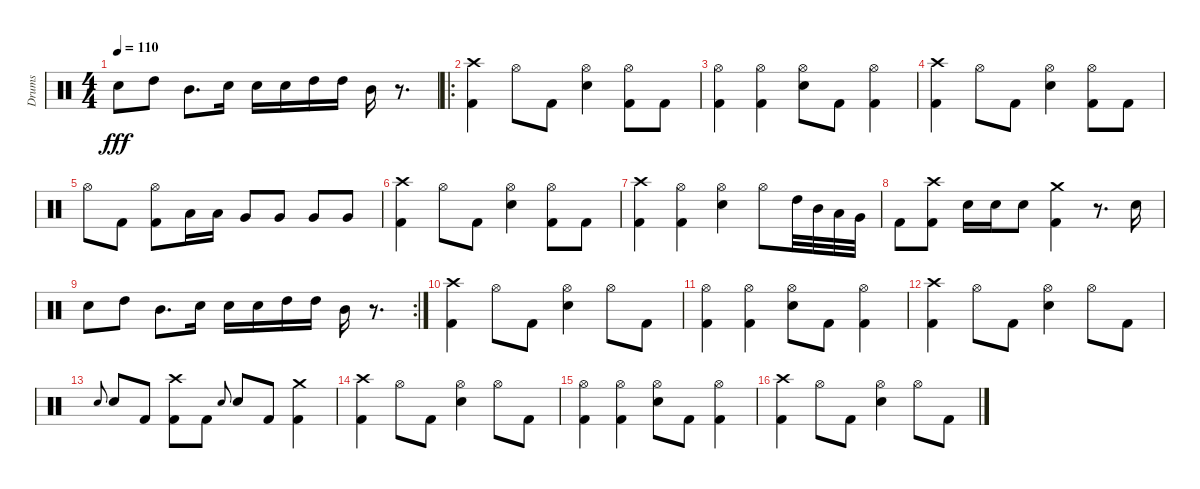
\track ("Drums" "Drums") {instrument percussion}
\staff {score}
\articulation defaults
\ts (4 4)
\tempo 110
\clef neutral
\ks c "Snare (hit) 2".8{dy fff} "High Tom (hit)".8 "Mid Tom (hit)".8{d} "Snare (hit) 2".16 "Snare (hit) 2".16 "Snare (hit) 2".16 "High Tom (hit)".16 "High Tom (hit)".16 "Mid Tom (hit)".16
r.8{d} |
\ro
("Crash high (hit)" "Kick (hit) 2").4 "Hi-Hat (open)".8 "Kick (hit) 2".8 ("Hi-Hat (open)" "Snare (hit) 2").4 ("Hi-Hat (open)" "Kick (hit) 2").8 "Kick (hit) 2".8 |
("Kick (hit) 2" "Hi-Hat (open)").4 ("Hi-Hat (open)" "Kick (hit) 2").4 ("Hi-Hat (open)" "Snare (hit) 2").8 "Kick (hit) 2".8 ("Kick (hit) 2" "Hi-Hat (open)").4 |
("Crash high (hit)" "Kick (hit) 2").4 "Hi-Hat (open)".8 "Kick (hit) 2".8 ("Hi-Hat (open)" "Snare (hit) 2").4 ("Hi-Hat (open)" "Kick (hit) 2").8 "Kick (hit) 2".8 |
"Hi-Hat (open)".8 "Kick (hit) 2".8 ("Kick (hit) 2" "Hi-Hat (open)").8 "Low Tom (hit)".16 "Low Tom (hit)".16 "Very Low Tom (hit)".8 "Very Low Tom (hit)".8 "Very Low Tom (hit)".8 "Very Low Tom (hit)".8 |
("Crash high (hit)" "Kick (hit) 2").4 "Hi-Hat (open)".8 "Kick (hit) 2".8 ("Hi-Hat (open)" "Snare (hit) 2").4 ("Hi-Hat (open)" "Kick (hit) 2").8 "Kick (hit) 2".8 |
("Kick (hit) 2" "Crash high (hit)").4 ("Hi-Hat (open)" "Kick (hit) 2").4 ("Hi-Hat (open)" "Snare (hit) 2").4 "Hi-Hat (open)".8 "High Tom (hit)".32 "Mid Tom (hit)".32 "Low Tom (hit)".32 "Very Low Tom (hit)".32 |
"Kick (hit) 2".8 ("Kick (hit) 2" "Crash high (hit)").8 "Snare (hit) 2".16 "Snare (hit) 2".16 "Snare (hit) 2".8 ("Kick (hit) 2" "Crash medium (hit)").4 r.8{d} "Snare (hit) 2".16 |
\rc 2 "Snare (hit) 2".8 "High Tom (hit)".8 "Mid Tom (hit)".8{d} "Snare (hit) 2".16 "Snare (hit) 2".16 "Snare (hit) 2".16 "High Tom (hit)".16 "High Tom (hit)".16 "Mid Tom (hit)".16
r.8{d} |
("Kick (hit) 2" "Crash high (hit)").4 "Hi-Hat (open)".8 "Kick (hit) 2".8 ("Hi-Hat (open)" "Snare (hit) 2").4 "Hi-Hat (open)".8 "Kick (hit) 2".8 |
("Kick (hit) 2" "Hi-Hat (open)").4 ("Hi-Hat (open)" "Kick (hit) 2").4 ("Hi-Hat (open)" "Snare (hit) 2").8 "Kick (hit) 2".8 ("Hi-Hat (open)" "Kick (hit) 2").4 |
("Kick (hit) 2" "Crash high (hit)").4 "Hi-Hat (open)".8 "Kick (hit) 2".8 ("Hi-Hat (open)" "Snare (hit) 2").4 "Hi-Hat (open)".8 "Kick (hit) 2".8 |
"Snare (hit) 2".8{gr onbeat} "Snare (hit) 2".8 "Kick (hit) 2".8 ("Kick (hit) 2" "Crash high (hit)").8 "Kick (hit) 2".8 "Snare (hit) 2".8{gr onbeat} "Snare (hit) 2".8 "Kick (hit) 2".8 ("Kick (hit) 2" "Crash medium (hit)").4 |
("Kick (hit) 2" "Crash high (hit)").4 "Hi-Hat (open)".8 "Kick (hit) 2".8 ("Hi-Hat (open)" "Snare (hit) 2").4 "Hi-Hat (open)".8 "Kick (hit) 2".8 |
("Kick (hit) 2" "Hi-Hat (open)").4 ("Hi-Hat (open)" "Kick (hit) 2").4 ("Hi-Hat (open)" "Snare (hit) 2").8 "Kick (hit) 2".8 ("Hi-Hat (open)" "Kick (hit) 2").4 |
("Kick (hit) 2" "Crash high (hit)").4 "Hi-Hat (open)".8 "Kick (hit) 2".8 ("Hi-Hat (open)" "Snare (hit) 2").4 "Hi-Hat (open)".8 "Kick (hit) 2".8
